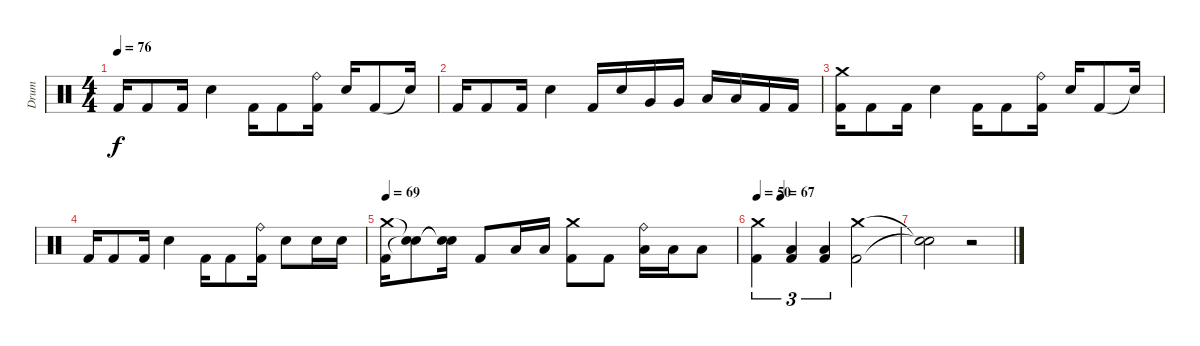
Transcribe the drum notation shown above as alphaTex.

\track ("Drum" "Drum") {instrument percussion}
\staff {score}
\articulation defaults
\ts (4 4)
\tempo 76
\clef neutral
\ks c "Kick (hit) 2".16{dy f} "Kick (hit) 2".8 "Kick (hit) 2".16 "Electric Snare (hit)".4 "Kick (hit) 2".16 "Kick (hit) 2".8
("Ride (bell)" "Kick (hit) 2").16 "Electric Snare (hit)".16 "Kick (hit) 2".8 "Snare (hit)"{t}.16 |
"Kick (hit) 2".16 "Kick (hit) 2".8 "Kick (hit) 2".16 "Electric Snare (hit)".4 "Kick (hit) 2".16 "Electric Snare (hit)".16 "Very Low Tom (hit)".16 "Very Low Tom (hit)".16 "Low Floor Tom (hit)".16 "Low Floor Tom (hit)".16 "Kick (hit) 2".16 "Kick (hit) 2".16 |
("Crash medium (hit)" "Kick (hit) 2").16 "Kick (hit) 2".8 "Kick (hit) 2".16 "Electric Snare (hit)".4 "Kick (hit) 2".16 "Kick (hit) 2".8 ("Ride (bell)" "Kick (hit) 2").16 "Electric Snare (hit)".16 "Kick (hit) 2".8 "Snare (hit)"{t}.16 |
"Kick (hit) 2".16 "Kick (hit) 2".8 "Kick (hit) 2".16 "Electric Snare (hit)".4 "Kick (hit) 2".16 "Kick (hit) 2".8 ("Ride (bell)" "Kick (hit) 2").16 "Electric Snare (hit)".8 "Electric Snare (hit)".16 "Electric Snare (hit)".16 |
\tempo 69
("Crash medium (hit)" "Kick (hit) 2").16 ("Snare (hit)"{t} "Snare (hit)"{t}).8 ("Snare (hit)"{t} "Snare (hit)"{t}).16 "Kick (hit) 2".8 "Low Tom (hit)".16 "Low Tom (hit)".16 ("Crash medium (hit)" "Kick (hit) 2").8 "Kick (hit) 2".8 ("Ride (bell)" "Low Tom (hit)").16 "Low Tom (hit)".16 "Low Tom (hit)".8 |
\tempo 50
\tempo (67 0.16666666666666666)
("Crash medium (hit)" "Kick (hit) 2").4{tu (3 2)} ("Kick (hit) 2" "Low Tom (hit)").4{tu (3 2)} ("Kick (hit) 2" "Low Tom (hit)").4{tu (3 2)} ("Crash medium (hit)" "Kick (hit) 2").2 |
("Snare (hit)"{t} "Snare (hit)"{t}).2 r.2
